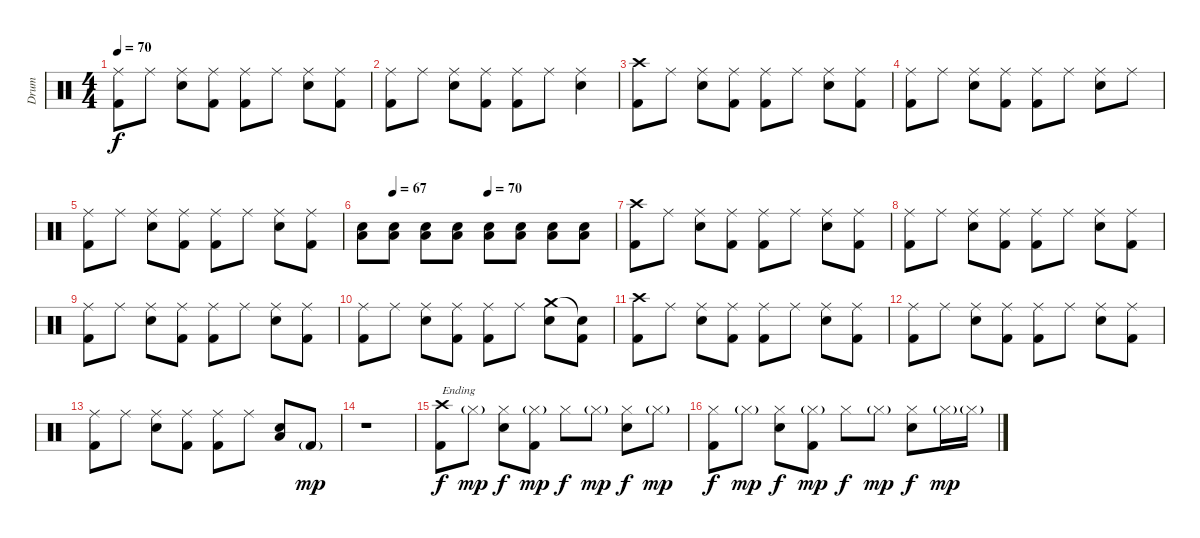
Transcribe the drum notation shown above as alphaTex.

\track ("Drum" "Drum") {instrument percussion}
\staff {score}
\articulation defaults
\ts (4 4)
\tempo 70
\clef neutral
\ks c
("Ride (middle)" "Kick (hit) 2").8{dy f} "Ride (middle)".8 ("Ride (middle)" "Snare (hit) 2").8 ("Ride (middle)" "Kick (hit) 2").8 ("Ride (middle)" "Kick (hit) 2").8 "Ride (middle)".8 ("Ride (middle)" "Snare (hit) 2").8 ("Ride (middle)" "Kick (hit) 2").8 |
("Ride (middle)" "Kick (hit) 2").8 "Ride (middle)".8 ("Ride (middle)" "Snare (hit) 2").8 ("Ride (middle)" "Kick (hit) 2").8 ("Ride (middle)" "Kick (hit) 2").8 "Ride (middle)".8 ("Ride (middle)" "Snare (hit) 2").4 |
("Crash high (hit)" "Kick (hit) 2").8 "Ride (middle)".8 ("Ride (middle)" "Snare (hit) 2").8 ("Ride (middle)" "Kick (hit) 2").8 ("Ride (middle)" "Kick (hit) 2").8 "Ride (middle)".8 ("Ride (middle)" "Snare (hit) 2").8 ("Ride (middle)" "Kick (hit) 2").8 |
("Ride (middle)" "Kick (hit) 2").8 "Ride (middle)".8 ("Ride (middle)" "Snare (hit) 2").8 ("Ride (middle)" "Kick (hit) 2").8 ("Ride (middle)" "Kick (hit) 2").8 "Ride (middle)".8 ("Ride (middle)" "Snare (hit) 2").8 "Ride (middle)".8 |
("Ride (middle)" "Kick (hit) 2").8 "Ride (middle)".8 ("Ride (middle)" "Snare (hit) 2").8 ("Ride (middle)" "Kick (hit) 2").8 ("Ride (middle)" "Kick (hit) 2").8 "Ride (middle)".8 ("Ride (middle)" "Snare (hit) 2").8 ("Ride (middle)" "Kick (hit) 2").8 |
\tempo (67 0.125)
\tempo (70 0.5)
("Low Floor Tom (hit)" "Snare (hit) 2").8 ("Low Floor Tom (hit)" "Snare (hit) 2").8 ("Low Floor Tom (hit)" "Snare (hit) 2").8 ("Low Floor Tom (hit)" "Snare (hit) 2").8 ("Low Floor Tom (hit)" "Snare (hit) 2").8 ("Low Floor Tom (hit)" "Snare (hit) 2").8 ("Low Floor Tom (hit)" "Snare (hit) 2").8 ("Low Floor Tom (hit)" "Snare (hit) 2").8 |
("Crash high (hit)" "Kick (hit) 2").8 "Ride (middle)".8 ("Ride (middle)" "Snare (hit) 2").8 ("Ride (middle)" "Kick (hit) 2").8 ("Ride (middle)" "Kick (hit) 2").8 "Ride (middle)".8 ("Ride (middle)" "Snare (hit) 2").8 ("Ride (middle)" "Kick (hit) 2").8 |
("Ride (middle)" "Kick (hit) 2").8 "Ride (middle)".8 ("Ride (middle)" "Snare (hit) 2").8 ("Ride (middle)" "Kick (hit) 2").8 ("Ride (middle)" "Kick (hit) 2").8 "Ride (middle)".8 ("Ride (middle)" "Snare (hit) 2").8 ("Ride (middle)" "Kick (hit) 2").8 |
("Ride (middle)" "Kick (hit) 2").8 "Ride (middle)".8 ("Ride (middle)" "Snare (hit) 2").8 ("Ride (middle)" "Kick (hit) 2").8 ("Ride (middle)" "Kick (hit) 2").8 "Ride (middle)".8 ("Ride (middle)" "Snare (hit) 2").8 ("Ride (middle)" "Kick (hit) 2").8 |
("Ride (middle)" "Kick (hit) 2").8 "Ride (middle)".8 ("Ride (middle)" "Snare (hit) 2").8 ("Ride (middle)" "Kick (hit) 2").8 ("Ride (middle)" "Kick (hit) 2").8 "Ride (middle)".8 ("Crash medium (hit)" "Snare (hit) 2").8 ("Snare (hit)"{t} "Kick (hit) 2").8 |
("Crash high (hit)" "Kick (hit) 2").8 "Ride (middle)".8 ("Ride (middle)" "Snare (hit) 2").8 ("Ride (middle)" "Kick (hit) 2").8 ("Ride (middle)" "Kick (hit) 2").8 "Ride (middle)".8 ("Ride (middle)" "Snare (hit) 2").8 ("Ride (middle)" "Kick (hit) 2").8 |
("Ride (middle)" "Kick (hit) 2").8 "Ride (middle)".8 ("Ride (middle)" "Snare (hit) 2").8 ("Ride (middle)" "Kick (hit) 2").8 ("Ride (middle)" "Kick (hit) 2").8 "Ride (middle)".8 ("Ride (middle)" "Snare (hit) 2").8 ("Ride (middle)" "Kick (hit) 2").8 |
("Ride (middle)" "Kick (hit) 2").8 "Ride (middle)".8 ("Ride (middle)" "Snare (hit) 2").8 ("Ride (middle)" "Kick (hit) 2").8 ("Ride (middle)" "Kick (hit) 2").8 "Ride (middle)".8 ("Low Floor Tom (hit)" "Snare (hit) 2").8 "Kick (hit) 2"{g}.8{dy mp} |
r.1 |
("Crash high (hit)" "Kick (hit) 2").8{txt "Ending" dy f} "Hi-Hat (closed)"{g}.8{dy mp} ("Hi-Hat (closed)" "Snare (hit) 2").8{dy f} ("Hi-Hat (closed)"{g} "Kick (hit) 2").8{dy mp} "Hi-Hat (closed)".8{dy f} "Hi-Hat (closed)"{g}.8{dy mp} ("Hi-Hat (closed)" "Snare (hit) 2").8{dy f} "Hi-Hat (closed)"{g}.8{dy mp} |
("Hi-Hat (closed)" "Kick (hit) 2").8{dy f} "Hi-Hat (closed)"{g}.8{dy mp} ("Hi-Hat (closed)" "Snare (hit) 2").8{dy f} ("Hi-Hat (closed)"{g} "Kick (hit) 2").8{dy mp} "Hi-Hat (closed)".8{dy f} "Hi-Hat (closed)"{g}.8{dy mp} ("Hi-Hat (closed)" "Snare (hit) 2").8{dy f} "Hi-Hat (closed)"{g}.16{dy mp} "Hi-Hat (closed)"{g}.16
